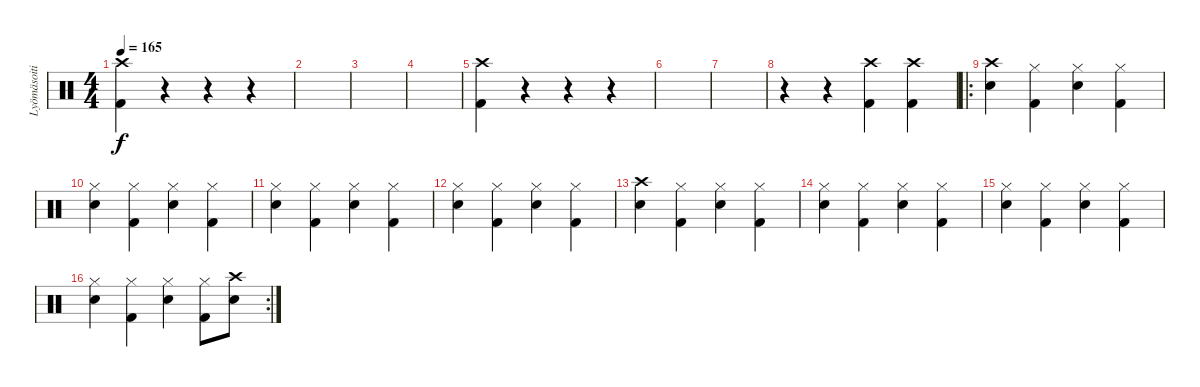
\track ("Lyömäsoitin" "Lyömäsoiti") {instrument percussion}
\staff {score}
\articulation defaults
\ts (4 4)
\tempo 165
\clef neutral
\ks c
("Crash high (hit)" "Kick (hit) 2").4{dy f} r.4 r.4 r.4 |
|
|
|
("Crash high (hit)" "Kick (hit) 2").4 r.4 r.4 r.4 |
|
|
r.4 r.4 ("Crash high (hit)" "Kick (hit) 2").4 ("Crash high (hit)" "Kick (hit) 2").4 |
\ro
("Crash high (hit)" "Snare (hit) 2").4 ("Hi-Hat (closed)" "Kick (hit) 2").4 ("Hi-Hat (closed)" "Snare (hit) 2").4 ("Hi-Hat (closed)" "Kick (hit) 2").4 |
("Hi-Hat (closed)" "Snare (hit) 2").4 ("Hi-Hat (closed)" "Kick (hit) 2").4 ("Hi-Hat (closed)" "Snare (hit) 2").4 ("Hi-Hat (closed)" "Kick (hit) 2").4 |
("Hi-Hat (closed)" "Snare (hit) 2").4 ("Hi-Hat (closed)" "Kick (hit) 2").4 ("Hi-Hat (closed)" "Snare (hit) 2").4 ("Hi-Hat (closed)" "Kick (hit) 2").4 |
("Hi-Hat (closed)" "Snare (hit) 2").4 ("Hi-Hat (closed)" "Kick (hit) 2").4 ("Hi-Hat (closed)" "Snare (hit) 2").4 ("Hi-Hat (closed)" "Kick (hit) 2").4 |
("Crash high (hit)" "Snare (hit) 2").4 ("Hi-Hat (closed)" "Kick (hit) 2").4 ("Hi-Hat (closed)" "Snare (hit) 2").4 ("Hi-Hat (closed)" "Kick (hit) 2").4 |
("Hi-Hat (closed)" "Snare (hit) 2").4 ("Hi-Hat (closed)" "Kick (hit) 2").4 ("Hi-Hat (closed)" "Snare (hit) 2").4 ("Hi-Hat (closed)" "Kick (hit) 2").4 |
("Hi-Hat (closed)" "Snare (hit) 2").4 ("Hi-Hat (closed)" "Kick (hit) 2").4 ("Hi-Hat (closed)" "Snare (hit) 2").4 ("Hi-Hat (closed)" "Kick (hit) 2").4 |
\rc 2
("Hi-Hat (closed)" "Snare (hit) 2").4 ("Hi-Hat (closed)" "Kick (hit) 2").4 ("Hi-Hat (closed)" "Snare (hit) 2").4 ("Hi-Hat (closed)" "Kick (hit) 2").8 ("Crash high (hit)" "Snare (hit) 2").8
